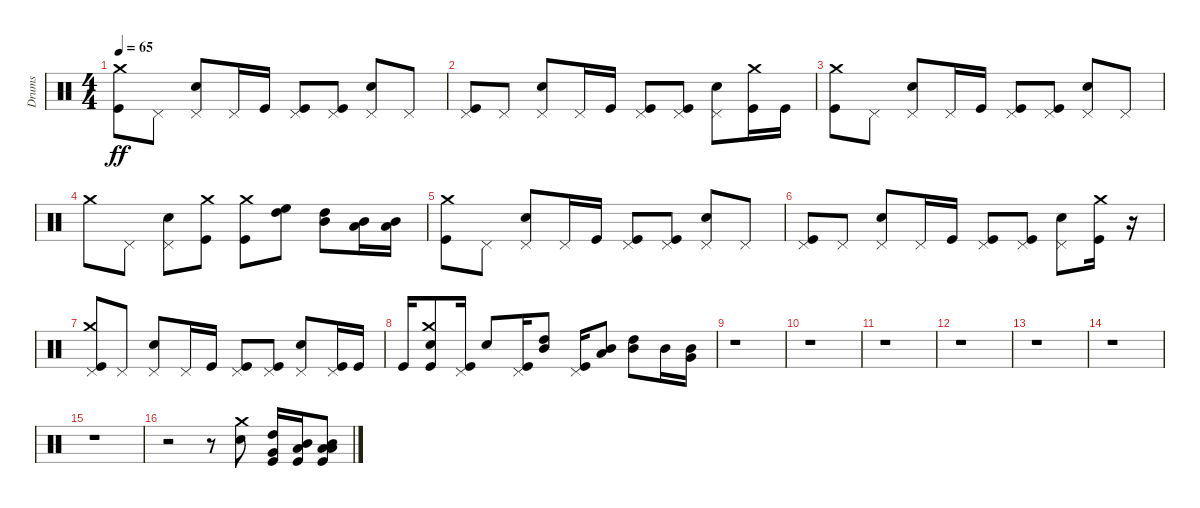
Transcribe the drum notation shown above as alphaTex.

\track ("Drums" "Drums") {instrument percussion}
\staff {score}
\articulation defaults
\ts (4 4)
\tempo 65
\clef neutral
\ks c
("Kick (hit)" "Crash medium (hit)").8{dy ff} "Pedal Hi-Hat (hit)".8 ("Electric Snare (hit)" "Pedal Hi-Hat (hit)").8 "Pedal Hi-Hat (hit)".16 "Kick (hit)".16 ("Kick (hit)" "Pedal Hi-Hat (hit)").8 ("Kick (hit)" "Pedal Hi-Hat (hit)").8 ("Electric Snare (hit)" "Pedal Hi-Hat (hit)").8 "Pedal Hi-Hat (hit)".8 |
("Kick (hit)" "Pedal Hi-Hat (hit)").8 "Pedal Hi-Hat (hit)".8 ("Electric Snare (hit)" "Pedal Hi-Hat (hit)").8 "Pedal Hi-Hat (hit)".16 "Kick (hit)".16 ("Kick (hit)" "Pedal Hi-Hat (hit)").8 ("Kick (hit)" "Pedal Hi-Hat (hit)").8 ("Electric Snare (hit)" "Pedal Hi-Hat (hit)").8 ("Kick (hit)" "Crash medium (hit)").16 "Kick (hit)".16 |
("Kick (hit)" "Crash medium (hit)").8 "Pedal Hi-Hat (hit)".8 ("Electric Snare (hit)" "Pedal Hi-Hat (hit)").8 "Pedal Hi-Hat (hit)".16 "Kick (hit)".16 ("Kick (hit)" "Pedal Hi-Hat (hit)").8 ("Kick (hit)" "Pedal Hi-Hat (hit)").8 ("Electric Snare (hit)" "Pedal Hi-Hat (hit)").8 "Pedal Hi-Hat (hit)".8 |
"Crash medium (hit)".8 "Pedal Hi-Hat (hit)".8 ("Electric Snare (hit)" "Pedal Hi-Hat (hit)").8 ("Kick (hit)" "Crash medium (hit)").8 ("Kick (hit)" "Crash medium (hit)").8 ("High Tom (hit)" "High Floor Tom (hit)").8 ("Mid Tom (hit)" "High Tom (hit)").8 ("Low Tom (hit)" "Mid Tom (hit)").16 ("Low Tom (hit)" "Mid Tom (hit)").16 |
("Kick (hit)" "Crash medium (hit)").8 "Pedal Hi-Hat (hit)".8 ("Electric Snare (hit)" "Pedal Hi-Hat (hit)").8 "Pedal Hi-Hat (hit)".16 "Kick (hit)".16 ("Kick (hit)" "Pedal Hi-Hat (hit)").8 ("Kick (hit)" "Pedal Hi-Hat (hit)").8 ("Electric Snare (hit)" "Pedal Hi-Hat (hit)").8 "Pedal Hi-Hat (hit)".8 |
("Kick (hit)" "Pedal Hi-Hat (hit)").8 "Pedal Hi-Hat (hit)".8 ("Electric Snare (hit)" "Pedal Hi-Hat (hit)").8 "Pedal Hi-Hat (hit)".16 "Kick (hit)".16 ("Kick (hit)" "Pedal Hi-Hat (hit)").8 ("Kick (hit)" "Pedal Hi-Hat (hit)").8 ("Electric Snare (hit)" "Pedal Hi-Hat (hit)").8 ("Kick (hit)" "Crash medium (hit)").16 r.16 |
("Kick (hit)" "Pedal Hi-Hat (hit)" "Crash medium (hit)").8 "Pedal Hi-Hat (hit)".8 ("Electric Snare (hit)" "Pedal Hi-Hat (hit)").8 "Pedal Hi-Hat (hit)".16 "Kick (hit)".16 ("Kick (hit)" "Pedal Hi-Hat (hit)").8 ("Kick (hit)" "Pedal Hi-Hat (hit)").8 ("Electric Snare (hit)" "Pedal Hi-Hat (hit)").8 ("Kick (hit)" "Pedal Hi-Hat (hit)").16 "Kick (hit)".16 |
"Kick (hit)".16 ("Kick (hit)" "Electric Snare (hit)" "Crash medium (hit)").8 ("Kick (hit)" "Pedal Hi-Hat (hit)").16 "Electric Snare (hit)".8 ("Kick (hit)" "Pedal Hi-Hat (hit)").16 ("Mid Tom (hit)" "High Tom (hit)").8 ("Kick (hit)" "Pedal Hi-Hat (hit)").16 ("Low Tom (hit)" "Mid Tom (hit)").8 ("Mid Tom (hit)" "High Tom (hit)").8 "Mid Tom (hit)".16 ("Very Low Tom (hit)" "Mid Tom (hit)").16 |
r.1 |
r.1 |
r.1 |
r.1 |
r.1 |
r.1 |
r.1 |
r.2 r.8 ("Electric Snare (hit)" "Crash medium (hit)").8 ("Kick (hit)" "Very Low Tom (hit)" "High Tom (hit)").16 ("Kick (hit)" "Low Floor Tom (hit)" "Mid Tom (hit)").16 ("Kick (hit)" "Low Floor Tom (hit)" "Low Tom (hit)" "Mid Tom (hit)").8
